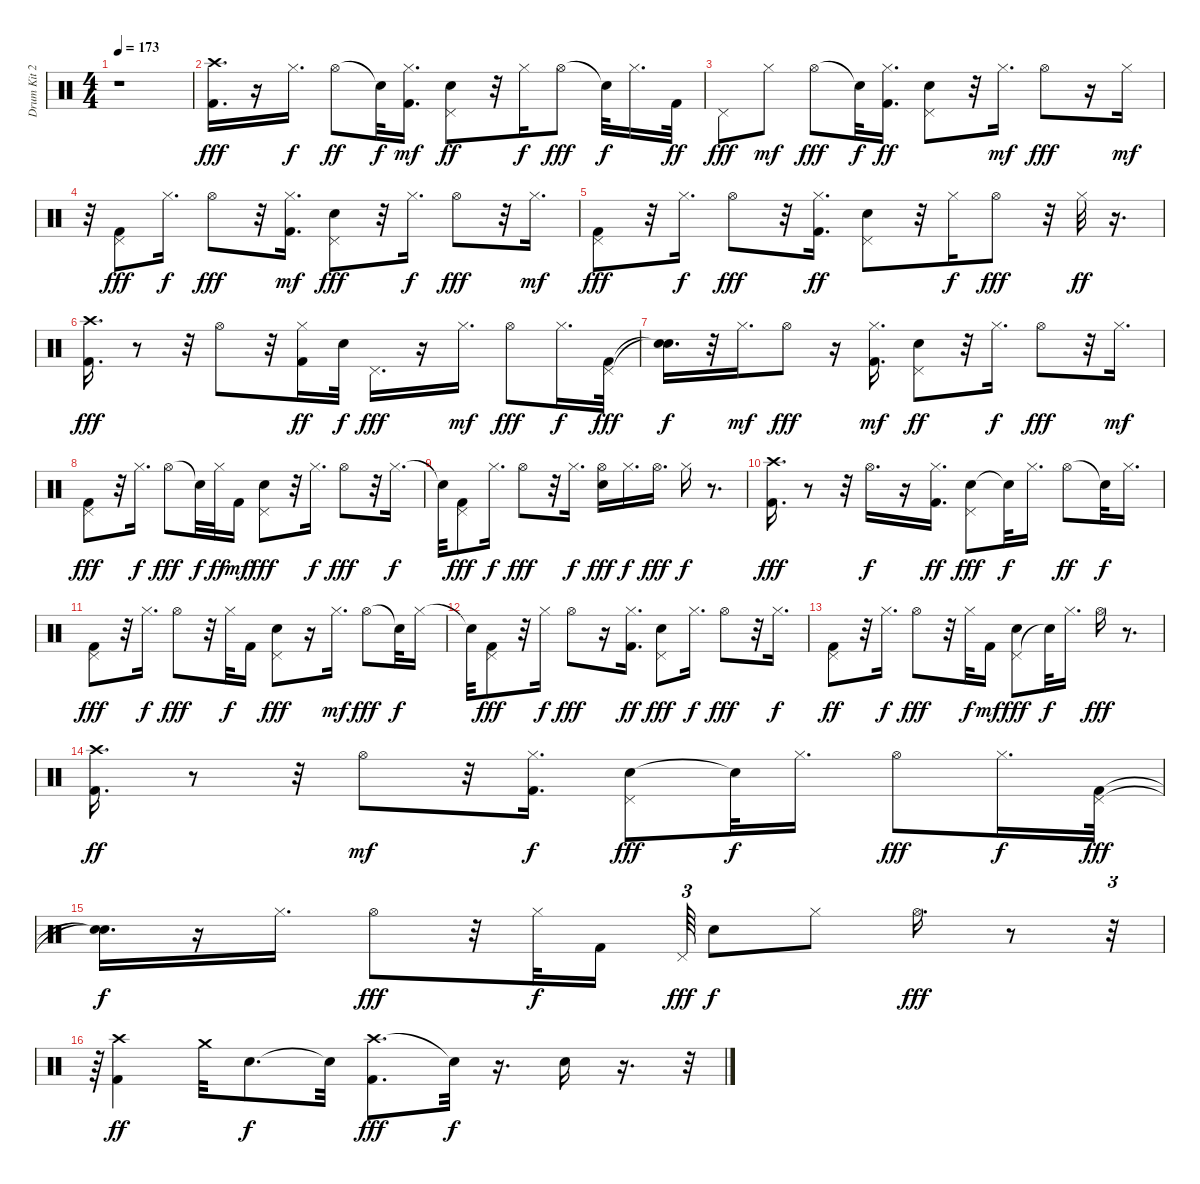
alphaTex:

\track ("Drum Kit 2" "Drum Kit 2") {instrument percussion}
\staff {score}
\articulation defaults
\ts (4 4)
\tempo 173
\clef neutral
\ks c
r.1{dy fff} |
("Kick (hit) 2" "Crash high (hit)").16{d} r.16 "Hi-Hat (closed)".16{d dy f} "Hi-Hat (open)".8{dy ff} "Snare (hit)"{t}.32{dy f} ("Hi-Hat (closed)" "Kick (hit) 2").16{d dy mf} ("Pedal Hi-Hat (hit)" "Electric Snare (hit)").8{dy ff} r.32 "Hi-Hat (closed)".16{dy f} "Hi-Hat (open)".8{dy fff} "Snare (hit)"{t}.32{dy f} "Hi-Hat (closed)".16{d} "Kick (hit) 2".32{dy ff} |
"Pedal Hi-Hat (hit)".8{dy fff} "Hi-Hat (closed)".8{dy mf} "Hi-Hat (open)".8{dy fff} "Snare (hit)"{t}.32{dy f} ("Kick (hit) 2" "Hi-Hat (closed)").16{d dy ff} ("Pedal Hi-Hat (hit)" "Electric Snare (hit)").8 r.32 "Hi-Hat (closed)".16{d dy mf} "Hi-Hat (open)".8{dy fff} r.16 "Hi-Hat (closed)".16{dy mf} |
r.32 ("Kick (hit) 2" "Pedal Hi-Hat (hit)").8{dy fff} "Hi-Hat (closed)".16{d dy f} "Hi-Hat (open)".8{dy fff} r.32 ("Hi-Hat (closed)" "Kick (hit) 2").16{d dy mf} ("Pedal Hi-Hat (hit)" "Electric Snare (hit)").8{dy fff} r.32 "Hi-Hat (closed)".16{d dy f} "Hi-Hat (open)".8{dy fff} r.32 "Hi-Hat (closed)".16{d dy mf} |
("Kick (hit) 2" "Pedal Hi-Hat (hit)").8{dy fff} r.32 "Hi-Hat (closed)".16{d dy f} "Hi-Hat (open)".8{dy fff} r.32 ("Hi-Hat (closed)" "Kick (hit) 2").16{d dy ff} ("Pedal Hi-Hat (hit)" "Electric Snare (hit)").8 r.32 "Hi-Hat (closed)".16{dy f} "Hi-Hat (open)".8{dy fff} r.32 "Hi-Hat (closed)".32{dy ff} r.16{d} |
("Kick (hit) 2" "Crash high (hit)").16{d dy fff} r.8 r.32 "Hi-Hat (open)".8 r.32 ("Hi-Hat (closed)" "Kick (hit) 2").16{dy ff} "Electric Snare (hit)".32{dy f} "Pedal Hi-Hat (hit)".16{d dy fff} r.16 "Hi-Hat (closed)".16{d dy mf} "Hi-Hat (open)".8{dy fff} "Hi-Hat (closed)".16{d dy f} ("Kick (hit) 2" "Pedal Hi-Hat (hit)").32{dy fff} |
("Snare (hit)"{t} "Snare (hit)"{t}).16{d dy f} r.32 "Hi-Hat (closed)".16{d dy mf} "Hi-Hat (open)".8{dy fff} r.16 ("Hi-Hat (closed)" "Kick (hit) 2").16{d dy mf} ("Pedal Hi-Hat (hit)" "Electric Snare (hit)").8{dy ff} r.32 "Hi-Hat (closed)".16{d dy f} "Hi-Hat (open)".8{dy fff} r.32 "Hi-Hat (closed)".16{d dy mf} |
("Kick (hit) 2" "Pedal Hi-Hat (hit)").8{dy fff} r.32 "Hi-Hat (closed)".16{d dy f} "Hi-Hat (open)".8{dy fff} "Snare (hit)"{t}.32{dy f} "Hi-Hat (closed)".32{dy ff} "Kick (hit) 2".16{dy mf} ("Pedal Hi-Hat (hit)" "Electric Snare (hit)").8{dy fff} r.32 "Hi-Hat (closed)".16{d dy f} "Hi-Hat (open)".8{dy fff} r.32 "Hi-Hat (closed)".16{d dy f} |
"Snare (hit)"{t}.32 ("Kick (hit) 2" "Pedal Hi-Hat (hit)").8{dy fff} "Hi-Hat (closed)".16{d dy f} "Hi-Hat (open)".8{dy fff} r.32 "Hi-Hat (closed)".16{d dy f} ("Electric Snare (hit)" "Hi-Hat (open)").16{dy fff} "Hi-Hat (closed)".16{d dy f} "Hi-Hat (open)".16{d dy fff} "Hi-Hat (closed)".16{dy f} r.8{d} |
("Kick (hit) 2" "Crash high (hit)").16{d dy fff} r.8 r.32 "Hi-Hat (open)".16{d dy f} r.16 ("Kick (hit) 2" "Hi-Hat (closed)").16{d dy ff} ("Electric Snare (hit)" "Pedal Hi-Hat (hit)").8{dy fff} "Snare (hit)"{t}.32{dy f} "Hi-Hat (closed)".16{d} "Hi-Hat (open)".8{dy ff} "Snare (hit)"{t}.32{dy f} "Hi-Hat (closed)".16{d} |
("Kick (hit) 2" "Pedal Hi-Hat (hit)").8{dy fff} r.32 "Hi-Hat (closed)".16{d dy f} "Hi-Hat (open)".8{dy fff} r.32 "Hi-Hat (closed)".32{dy f} "Kick (hit) 2".16 ("Pedal Hi-Hat (hit)" "Electric Snare (hit)").8{dy fff} r.16 "Hi-Hat (closed)".16{d dy mf} "Hi-Hat (open)".8{dy fff} "Snare (hit)"{t}.32{dy f} "Hi-Hat (closed)".16 |
"Snare (hit)"{t}.32 ("Kick (hit) 2" "Pedal Hi-Hat (hit)").8{dy fff} r.32 "Hi-Hat (closed)".16{dy f} "Hi-Hat (open)".8{dy fff} r.16 ("Hi-Hat (closed)" "Kick (hit) 2").16{d dy ff} ("Pedal Hi-Hat (hit)" "Electric Snare (hit)").8{dy fff} "Hi-Hat (closed)".16{d dy f} "Hi-Hat (open)".8{dy fff} r.32 "Hi-Hat (closed)".16{d dy f} |
("Pedal Hi-Hat (hit)" "Kick (hit) 2").8{dy ff} r.32 "Hi-Hat (closed)".16{d dy f} "Hi-Hat (open)".8{dy fff} r.32 "Hi-Hat (closed)".32{dy f} "Kick (hit) 2".16{dy mf} ("Pedal Hi-Hat (hit)" "Electric Snare (hit)").8{dy fff} "Snare (hit)"{t}.32{dy f} "Hi-Hat (closed)".16{d} "Hi-Hat (open)".16{dy fff} r.8{d} |
("Crash high (hit)" "Kick (hit) 2").16{d dy ff} r.8 r.32 "Hi-Hat (open)".8{dy mf} r.32 ("Kick (hit) 2" "Hi-Hat (closed)").16{d dy f} ("Electric Snare (hit)" "Pedal Hi-Hat (hit)").8{dy fff} "Snare (hit)"{t}.32{dy f} "Hi-Hat (closed)".16{d} "Hi-Hat (open)".8{dy fff} "Hi-Hat (closed)".16{d dy f} ("Pedal Hi-Hat (hit)" "Kick (hit) 2").32{dy fff} |
("Snare (hit)"{t} "Snare (hit)"{t}).16{d dy f} r.16 "Hi-Hat (closed)".16{d} "Hi-Hat (open)".8{dy fff} r.32 "Hi-Hat (closed)".32{dy f} "Kick (hit) 2".16 "Pedal Hi-Hat (hit)".64{tu (3 2) dy fff} "Electric Snare (hit)".8{dy f} "Hi-Hat (closed)".8 "Hi-Hat (open)".16{d dy fff} r.8 r.32{tu (3 2)} |
r.64{tu (3 2)} ("Crash high (hit)" "Kick (hit) 2").4{dy ff} "Crash medium (hit)".32 "Electric Snare (hit)".8{d dy f} "Snare (hit)"{t}.32 ("Crash high (hit)" "Kick (hit) 2").8{d dy fff} "Snare (hit)"{t}.32{dy f} r.16{d} "Electric Snare (hit)".16 r.16{d} r.32{tu (3 2)}
